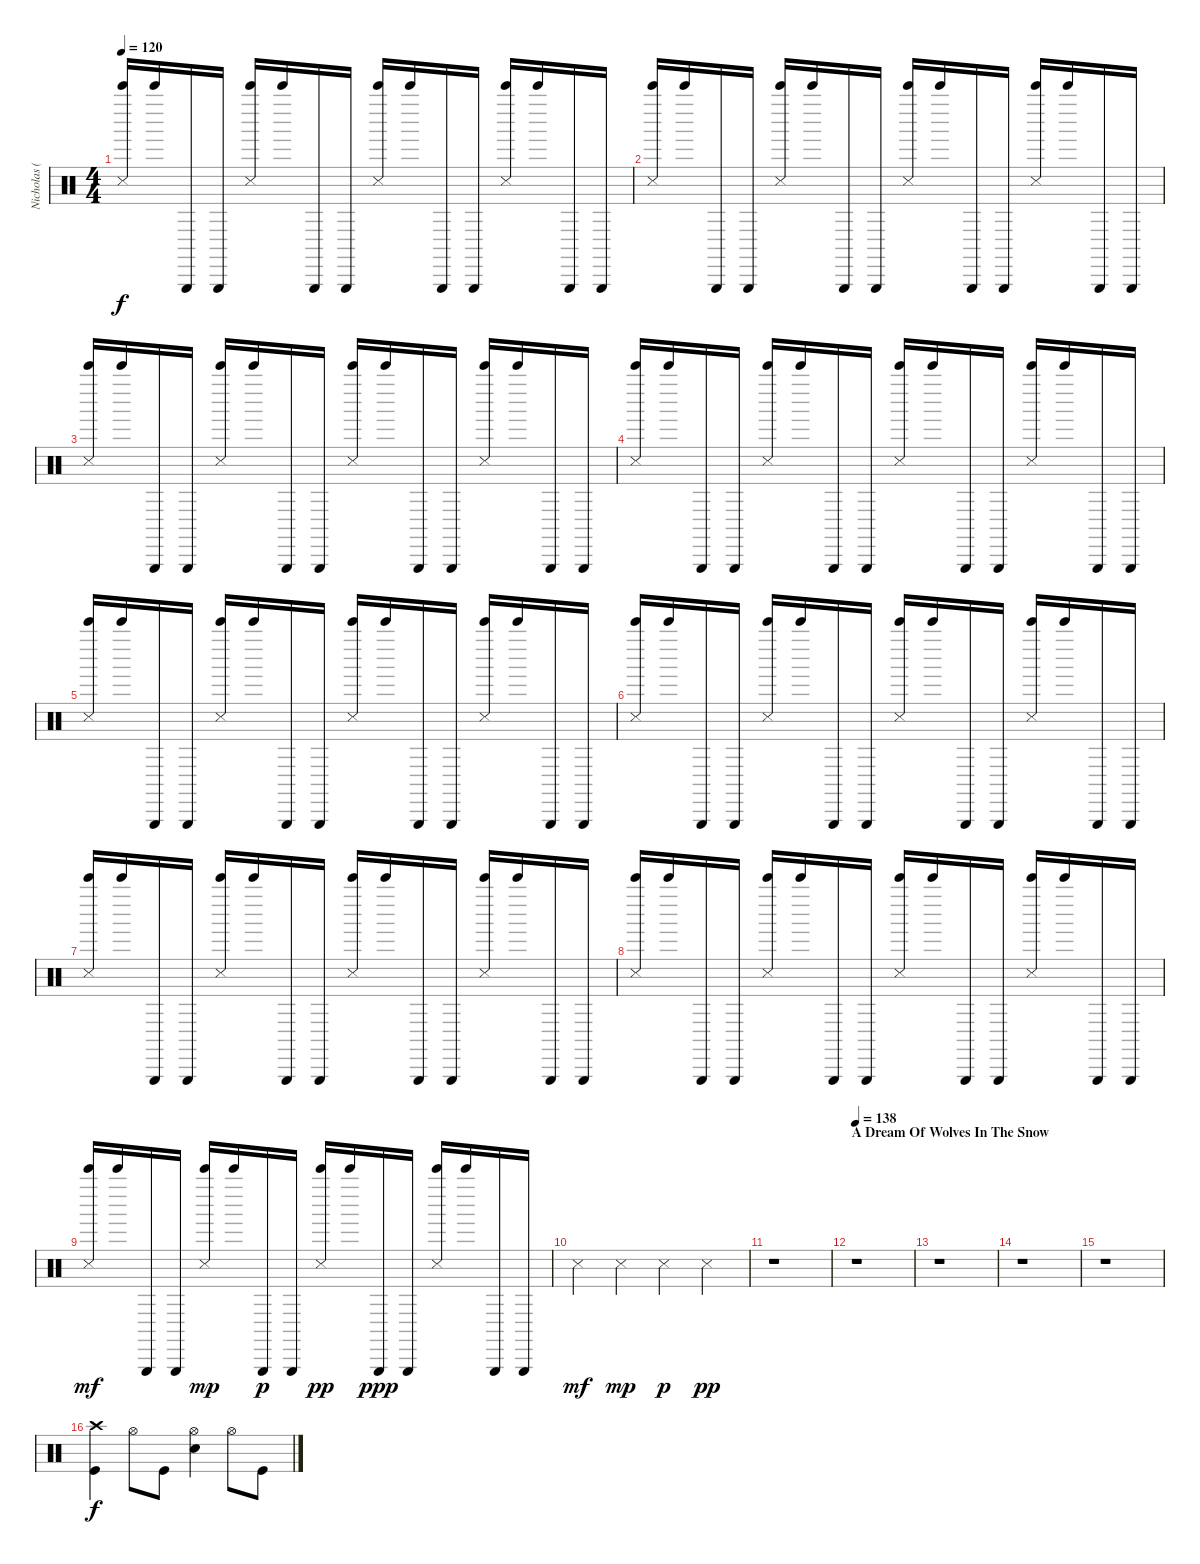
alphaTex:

\track ("Nicholas (Drums)" "Nicholas (") {instrument percussion}
\staff {score}
\articulation defaults
\ts (4 4)
\tempo 120
\clef neutral
\ks c
("Bell Tree (hit)" "Snare (side stick) 3").16{dy f} "Bell Tree (hit)".16 "Triangle (hit)".16 "Triangle (hit)".16 ("Bell Tree (hit)" "Metronome (hit)").16 "Bell Tree (hit)".16 "Triangle (hit)".16 "Triangle (hit)".16 ("Bell Tree (hit)" "Snare (side stick) 3").16 "Bell Tree (hit)".16 "Triangle (hit)".16 "Triangle (hit)".16 ("Bell Tree (hit)" "Metronome (hit)").16 "Bell Tree (hit)".16 "Triangle (hit)".16 "Triangle (hit)".16 |
("Bell Tree (hit)" "Snare (side stick) 3").16 "Bell Tree (hit)".16 "Triangle (hit)".16 "Triangle (hit)".16 ("Bell Tree (hit)" "Metronome (hit)").16 "Bell Tree (hit)".16 "Triangle (hit)".16 "Triangle (hit)".16 ("Bell Tree (hit)" "Snare (side stick) 3").16 "Bell Tree (hit)".16 "Triangle (hit)".16 "Triangle (hit)".16 ("Bell Tree (hit)" "Metronome (hit)").16 "Bell Tree (hit)".16 "Triangle (hit)".16 "Triangle (hit)".16 |
("Bell Tree (hit)" "Snare (side stick) 3").16 "Bell Tree (hit)".16 "Triangle (hit)".16 "Triangle (hit)".16 ("Bell Tree (hit)" "Metronome (hit)").16 "Bell Tree (hit)".16 "Triangle (hit)".16 "Triangle (hit)".16 ("Bell Tree (hit)" "Snare (side stick) 3").16 "Bell Tree (hit)".16 "Triangle (hit)".16 "Triangle (hit)".16 ("Bell Tree (hit)" "Metronome (hit)").16 "Bell Tree (hit)".16 "Triangle (hit)".16 "Triangle (hit)".16 |
("Bell Tree (hit)" "Snare (side stick) 3").16 "Bell Tree (hit)".16 "Triangle (hit)".16 "Triangle (hit)".16 ("Bell Tree (hit)" "Metronome (hit)").16 "Bell Tree (hit)".16 "Triangle (hit)".16 "Triangle (hit)".16 ("Bell Tree (hit)" "Snare (side stick) 3").16 "Bell Tree (hit)".16 "Triangle (hit)".16 "Triangle (hit)".16 ("Bell Tree (hit)" "Metronome (hit)").16 "Bell Tree (hit)".16 "Triangle (hit)".16 "Triangle (hit)".16 |
("Bell Tree (hit)" "Snare (side stick) 3").16 "Bell Tree (hit)".16 "Triangle (hit)".16 "Triangle (hit)".16 ("Bell Tree (hit)" "Metronome (hit)").16 "Bell Tree (hit)".16 "Triangle (hit)".16 "Triangle (hit)".16 ("Bell Tree (hit)" "Snare (side stick) 3").16 "Bell Tree (hit)".16 "Triangle (hit)".16 "Triangle (hit)".16 ("Bell Tree (hit)" "Metronome (hit)").16 "Bell Tree (hit)".16 "Triangle (hit)".16 "Triangle (hit)".16 |
("Bell Tree (hit)" "Snare (side stick) 3").16 "Bell Tree (hit)".16 "Triangle (hit)".16 "Triangle (hit)".16 ("Bell Tree (hit)" "Metronome (hit)").16 "Bell Tree (hit)".16 "Triangle (hit)".16 "Triangle (hit)".16 ("Bell Tree (hit)" "Snare (side stick) 3").16 "Bell Tree (hit)".16 "Triangle (hit)".16 "Triangle (hit)".16 ("Bell Tree (hit)" "Metronome (hit)").16 "Bell Tree (hit)".16 "Triangle (hit)".16 "Triangle (hit)".16 |
("Bell Tree (hit)" "Snare (side stick) 3").16 "Bell Tree (hit)".16 "Triangle (hit)".16 "Triangle (hit)".16 ("Bell Tree (hit)" "Metronome (hit)").16 "Bell Tree (hit)".16 "Triangle (hit)".16 "Triangle (hit)".16 ("Bell Tree (hit)" "Snare (side stick) 3").16 "Bell Tree (hit)".16 "Triangle (hit)".16 "Triangle (hit)".16 ("Bell Tree (hit)" "Metronome (hit)").16 "Bell Tree (hit)".16 "Triangle (hit)".16 "Triangle (hit)".16 |
("Bell Tree (hit)" "Snare (side stick) 3").16 "Bell Tree (hit)".16 "Triangle (hit)".16 "Triangle (hit)".16 ("Bell Tree (hit)" "Metronome (hit)").16 "Bell Tree (hit)".16 "Triangle (hit)".16 "Triangle (hit)".16 ("Bell Tree (hit)" "Snare (side stick) 3").16 "Bell Tree (hit)".16 "Triangle (hit)".16 "Triangle (hit)".16 ("Bell Tree (hit)" "Metronome (hit)").16 "Bell Tree (hit)".16 "Triangle (hit)".16 "Triangle (hit)".16 |
("Bell Tree (hit)" "Snare (side stick) 3").16{dy mf} "Bell Tree (hit)".16 "Triangle (hit)".16 "Triangle (hit)".16 ("Bell Tree (hit)" "Metronome (hit)").16{dy mp} "Bell Tree (hit)".16 "Triangle (hit)".16{dy p} "Triangle (hit)".16 ("Bell Tree (hit)" "Snare (side stick) 3").16{dy pp} "Bell Tree (hit)".16 "Triangle (hit)".16{dy ppp} "Triangle (hit)".16 ("Bell Tree (hit)" "Metronome (hit)").16 "Bell Tree (hit)".16 "Triangle (hit)".16 "Triangle (hit)".16 |
"Snare (side stick) 3".4{dy mf} "Metronome (hit)".4{dy mp} "Snare (side stick) 3".4{dy p} "Metronome (hit)".4{dy pp} |
r.1 |
\section ("" "A Dream Of Wolves In The Snow")
\tempo 138
r.1 |
r.1 |
r.1 |
r.1 |
("Crash high (hit)" "Kick (hit)").4{dy f} "Hi-Hat (open)".8 "Kick (hit)".8 ("Hi-Hat (open)" "Electric Snare (hit)").4 "Hi-Hat (open)".8 "Kick (hit)".8
